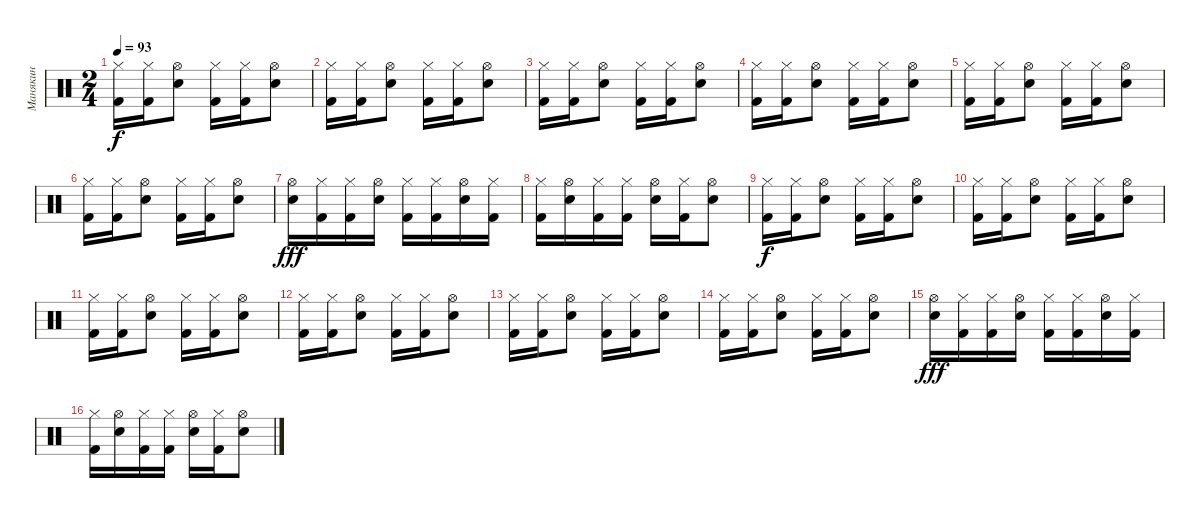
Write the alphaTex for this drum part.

\track ("Манякин" "Манякин") {instrument percussion}
\staff {score}
\articulation defaults
\ts (2 4)
\tempo 93
\clef neutral
\ks c
("Kick (hit) 2" "Hi-Hat (closed)").16{dy f} ("Kick (hit) 2" "Hi-Hat (closed)").16 ("Snare (hit) 2" "Hi-Hat (open)").8 ("Kick (hit) 2" "Hi-Hat (closed)").16 ("Kick (hit) 2" "Hi-Hat (closed)").16 ("Snare (hit) 2" "Hi-Hat (open)").8 |
("Kick (hit) 2" "Hi-Hat (closed)").16 ("Kick (hit) 2" "Hi-Hat (closed)").16 ("Snare (hit) 2" "Hi-Hat (open)").8 ("Kick (hit) 2" "Hi-Hat (closed)").16 ("Kick (hit) 2" "Hi-Hat (closed)").16 ("Snare (hit) 2" "Hi-Hat (open)").8 |
("Kick (hit) 2" "Hi-Hat (closed)").16 ("Kick (hit) 2" "Hi-Hat (closed)").16 ("Snare (hit) 2" "Hi-Hat (open)").8 ("Kick (hit) 2" "Hi-Hat (closed)").16 ("Kick (hit) 2" "Hi-Hat (closed)").16 ("Snare (hit) 2" "Hi-Hat (open)").8 |
("Kick (hit) 2" "Hi-Hat (closed)").16 ("Kick (hit) 2" "Hi-Hat (closed)").16 ("Snare (hit) 2" "Hi-Hat (open)").8 ("Kick (hit) 2" "Hi-Hat (closed)").16 ("Kick (hit) 2" "Hi-Hat (closed)").16 ("Snare (hit) 2" "Hi-Hat (open)").8 |
("Kick (hit) 2" "Hi-Hat (closed)").16 ("Kick (hit) 2" "Hi-Hat (closed)").16 ("Snare (hit) 2" "Hi-Hat (open)").8 ("Kick (hit) 2" "Hi-Hat (closed)").16 ("Kick (hit) 2" "Hi-Hat (closed)").16 ("Snare (hit) 2" "Hi-Hat (open)").8 |
("Kick (hit) 2" "Hi-Hat (closed)").16 ("Kick (hit) 2" "Hi-Hat (closed)").16 ("Snare (hit) 2" "Hi-Hat (open)").8 ("Kick (hit) 2" "Hi-Hat (closed)").16 ("Kick (hit) 2" "Hi-Hat (closed)").16 ("Snare (hit) 2" "Hi-Hat (open)").8 |
("Snare (hit) 2" "Hi-Hat (open)").16{dy fff} ("Kick (hit) 2" "Hi-Hat (closed)").16 ("Kick (hit) 2" "Hi-Hat (closed)").16 ("Snare (hit) 2" "Hi-Hat (open)").16 ("Kick (hit) 2" "Hi-Hat (closed)").16 ("Kick (hit) 2" "Hi-Hat (closed)").16 ("Snare (hit) 2" "Hi-Hat (open)").16 ("Kick (hit) 2" "Hi-Hat (closed)").16 |
("Kick (hit) 2" "Hi-Hat (closed)").16 ("Snare (hit) 2" "Hi-Hat (open)").16 ("Kick (hit) 2" "Hi-Hat (closed)").16 ("Kick (hit) 2" "Hi-Hat (closed)").16 ("Snare (hit) 2" "Hi-Hat (open)").16 ("Kick (hit) 2" "Hi-Hat (closed)").16 ("Snare (hit) 2" "Hi-Hat (open)").8 |
("Kick (hit) 2" "Hi-Hat (closed)").16{dy f} ("Kick (hit) 2" "Hi-Hat (closed)").16 ("Snare (hit) 2" "Hi-Hat (open)").8 ("Kick (hit) 2" "Hi-Hat (closed)").16 ("Kick (hit) 2" "Hi-Hat (closed)").16 ("Snare (hit) 2" "Hi-Hat (open)").8 |
("Kick (hit) 2" "Hi-Hat (closed)").16 ("Kick (hit) 2" "Hi-Hat (closed)").16 ("Snare (hit) 2" "Hi-Hat (open)").8 ("Kick (hit) 2" "Hi-Hat (closed)").16 ("Kick (hit) 2" "Hi-Hat (closed)").16 ("Snare (hit) 2" "Hi-Hat (open)").8 |
("Kick (hit) 2" "Hi-Hat (closed)").16 ("Kick (hit) 2" "Hi-Hat (closed)").16 ("Snare (hit) 2" "Hi-Hat (open)").8 ("Kick (hit) 2" "Hi-Hat (closed)").16 ("Kick (hit) 2" "Hi-Hat (closed)").16 ("Snare (hit) 2" "Hi-Hat (open)").8 |
("Kick (hit) 2" "Hi-Hat (closed)").16 ("Kick (hit) 2" "Hi-Hat (closed)").16 ("Snare (hit) 2" "Hi-Hat (open)").8 ("Kick (hit) 2" "Hi-Hat (closed)").16 ("Kick (hit) 2" "Hi-Hat (closed)").16 ("Snare (hit) 2" "Hi-Hat (open)").8 |
("Kick (hit) 2" "Hi-Hat (closed)").16 ("Kick (hit) 2" "Hi-Hat (closed)").16 ("Snare (hit) 2" "Hi-Hat (open)").8 ("Kick (hit) 2" "Hi-Hat (closed)").16 ("Kick (hit) 2" "Hi-Hat (closed)").16 ("Snare (hit) 2" "Hi-Hat (open)").8 |
("Kick (hit) 2" "Hi-Hat (closed)").16 ("Kick (hit) 2" "Hi-Hat (closed)").16 ("Snare (hit) 2" "Hi-Hat (open)").8 ("Kick (hit) 2" "Hi-Hat (closed)").16 ("Kick (hit) 2" "Hi-Hat (closed)").16 ("Snare (hit) 2" "Hi-Hat (open)").8 |
("Snare (hit) 2" "Hi-Hat (open)").16{dy fff} ("Kick (hit) 2" "Hi-Hat (closed)").16 ("Kick (hit) 2" "Hi-Hat (closed)").16 ("Snare (hit) 2" "Hi-Hat (open)").16 ("Kick (hit) 2" "Hi-Hat (closed)").16 ("Kick (hit) 2" "Hi-Hat (closed)").16 ("Snare (hit) 2" "Hi-Hat (open)").16 ("Kick (hit) 2" "Hi-Hat (closed)").16 |
("Kick (hit) 2" "Hi-Hat (closed)").16 ("Snare (hit) 2" "Hi-Hat (open)").16 ("Kick (hit) 2" "Hi-Hat (closed)").16 ("Kick (hit) 2" "Hi-Hat (closed)").16 ("Snare (hit) 2" "Hi-Hat (open)").16 ("Kick (hit) 2" "Hi-Hat (closed)").16 ("Snare (hit) 2" "Hi-Hat (open)").8
